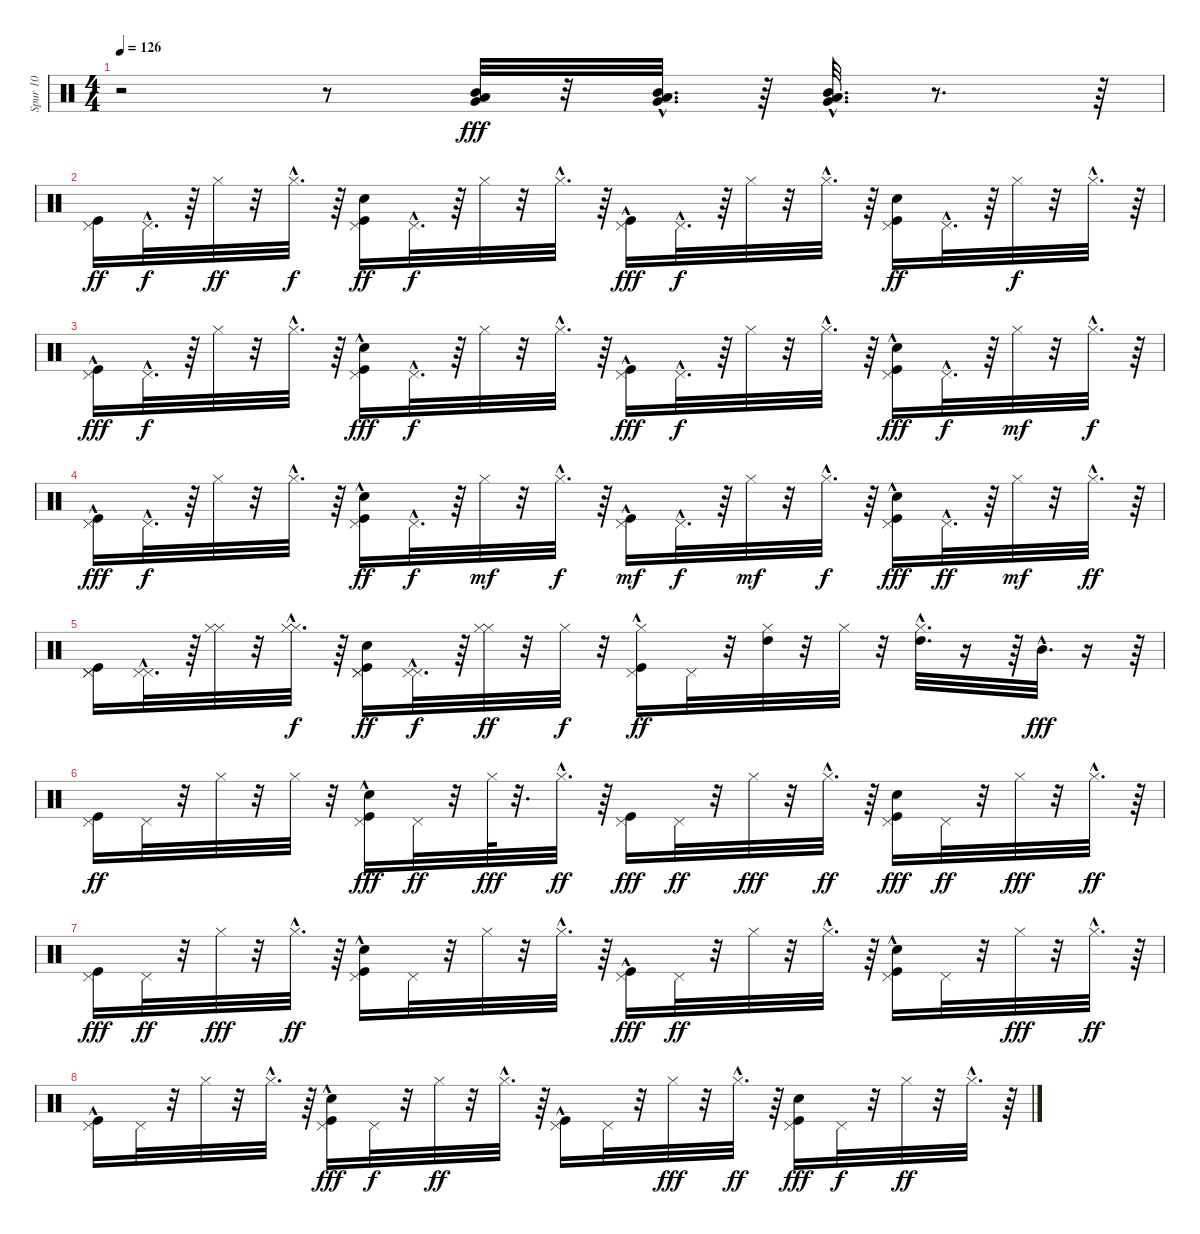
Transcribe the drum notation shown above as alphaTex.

\track ("Spur 10" "Spur 10") {instrument percussion}
\staff {score}
\articulation defaults
\ts (4 4)
\tempo 126
\clef neutral
\ks c
r.2{dy fff} r.8 ("Very Low Tom (hit)" "Low Tom (hit)" "Mid Tom (hit)").32 r.32 ("Low Tom (hit)"{hac} "Very Low Tom (hit)"{hac} "Mid Tom (hit)"{hac}).32{d} r.64 ("Very Low Tom (hit)" "Low Tom (hit)"{hac} "Mid Tom (hit)").32{d} r.8{d} r.64 |
("Kick (hit)" "Pedal Hi-Hat (hit)").16{dy ff} "Pedal Hi-Hat (hit)"{hac}.32{d dy f} r.64 "Hi-Hat (closed)".32{dy ff} r.32 "Hi-Hat (closed)"{hac}.32{d dy f} r.64 ("Kick (hit)" "Snare (hit) 2" "Pedal Hi-Hat (hit)").16{dy ff} "Pedal Hi-Hat (hit)"{hac}.32{d dy f} r.64 "Hi-Hat (closed)".32 r.32 "Hi-Hat (closed)"{hac}.32{d} r.64 ("Kick (hit)"{hac} "Pedal Hi-Hat (hit)").16{dy fff} "Pedal Hi-Hat (hit)"{hac}.32{d dy f} r.64 "Hi-Hat (closed)".32 r.32 "Hi-Hat (closed)"{hac}.32{d} r.64 ("Kick (hit)" "Snare (hit) 2" "Pedal Hi-Hat (hit)").16{dy ff} "Pedal Hi-Hat (hit)"{hac}.32{d} r.64 "Hi-Hat (closed)".32{dy f} r.32 "Hi-Hat (closed)"{hac}.32{d} r.64 |
("Kick (hit)"{hac} "Pedal Hi-Hat (hit)").16{dy fff} "Pedal Hi-Hat (hit)"{hac}.32{d dy f} r.64 "Hi-Hat (closed)".32 r.32 "Hi-Hat (closed)"{hac}.32{d} r.64 ("Snare (hit) 2"{hac} "Kick (hit)"{hac} "Pedal Hi-Hat (hit)").16{dy fff} "Pedal Hi-Hat (hit)"{hac}.32{d dy f} r.64 "Hi-Hat (closed)".32 r.32 "Hi-Hat (closed)"{hac}.32{d} r.64 ("Kick (hit)"{hac} "Pedal Hi-Hat (hit)").16{dy fff} "Pedal Hi-Hat (hit)"{hac}.32{d dy f} r.64 "Hi-Hat (closed)".32 r.32 "Hi-Hat (closed)"{hac}.32{d} r.64 ("Snare (hit) 2"{hac} "Kick (hit)"{hac} "Pedal Hi-Hat (hit)").16{dy fff} "Pedal Hi-Hat (hit)"{hac}.32{d dy f} r.64 "Hi-Hat (closed)".32{dy mf} r.32 "Hi-Hat (closed)"{hac}.32{d dy f} r.64 |
("Kick (hit)"{hac} "Pedal Hi-Hat (hit)").16{dy fff} "Pedal Hi-Hat (hit)"{hac}.32{d dy f} r.64 "Hi-Hat (closed)".32 r.32 "Hi-Hat (closed)"{hac}.32{d} r.64 ("Kick (hit)"{hac} "Snare (hit) 2"{hac} "Pedal Hi-Hat (hit)").16{dy ff} "Pedal Hi-Hat (hit)"{hac}.32{d dy f} r.64 "Hi-Hat (closed)".32{dy mf} r.32 "Hi-Hat (closed)"{hac}.32{d dy f} r.64 ("Kick (hit)"{hac} "Pedal Hi-Hat (hit)").16{dy mf} "Pedal Hi-Hat (hit)"{hac}.32{d dy f} r.64 "Hi-Hat (closed)".32{dy mf} r.32 "Hi-Hat (closed)"{hac}.32{d dy f} r.64 ("Snare (hit) 2"{hac} "Kick (hit)"{hac} "Pedal Hi-Hat (hit)").16{dy fff} "Pedal Hi-Hat (hit)"{hac}.32{d dy ff} r.64 "Hi-Hat (closed)".32{dy mf} r.32 "Hi-Hat (closed)"{hac}.32{d dy ff} r.64 |
("Kick (hit)" "Pedal Hi-Hat (hit)" "Pedal Hi-Hat (hit)").16 ("Pedal Hi-Hat (hit)"{hac} "Pedal Hi-Hat (hit)"{hac}).32{d} r.64 ("Hi-Hat (closed)" "Hi-Hat (closed)").32 r.32 ("Hi-Hat (closed)"{hac} "Hi-Hat (closed)"{hac}).32{d dy f} r.64 ("Snare (hit) 2" "Kick (hit)" "Pedal Hi-Hat (hit)" "Pedal Hi-Hat (hit)").16{dy ff} ("Pedal Hi-Hat (hit)"{hac} "Pedal Hi-Hat (hit)"{hac}).32{d dy f} r.64 ("Hi-Hat (closed)" "Hi-Hat (closed)").32{dy ff} r.32 "Hi-Hat (closed)".32{dy f} r.32 ("Kick (hit)"{hac} "Hi-Hat (closed)"{hac} "Pedal Hi-Hat (hit)").16{dy ff} "Pedal Hi-Hat (hit)".32 r.32 ("High Tom (hit)" "Hi-Hat (closed)").32 r.32 "Hi-Hat (closed)".32 r.32 ("High Tom (hit)"{hac} "Hi-Hat (closed)").32{d} r.16 r.64 "Mid Tom (hit)"{hac}.32{d dy fff} r.16 r.64 |
("Kick (hit)" "Pedal Hi-Hat (hit)").16{dy ff} "Pedal Hi-Hat (hit)".32 r.32 "Hi-Hat (closed)".32 r.32 "Hi-Hat (closed)".32 r.32 ("Kick (hit)" "Snare (hit) 2"{hac} "Pedal Hi-Hat (hit)").16{dy fff} "Pedal Hi-Hat (hit)".32{dy ff} r.32 "Hi-Hat (closed)".64{dy fff} r.32{d} "Hi-Hat (closed)"{hac}.32{d dy ff} r.64 ("Kick (hit)" "Pedal Hi-Hat (hit)").16{dy fff} "Pedal Hi-Hat (hit)".32{dy ff} r.32 "Hi-Hat (closed)".32{dy fff} r.32 "Hi-Hat (closed)"{hac}.32{d dy ff} r.64 ("Kick (hit)" "Snare (hit) 2" "Pedal Hi-Hat (hit)").16{dy fff} "Pedal Hi-Hat (hit)".32{dy ff} r.32 "Hi-Hat (closed)".32{dy fff} r.32 "Hi-Hat (closed)"{hac}.32{d dy ff} r.64 |
("Kick (hit)" "Pedal Hi-Hat (hit)").16{dy fff} "Pedal Hi-Hat (hit)".32{dy ff} r.32 "Hi-Hat (closed)".32{dy fff} r.32 "Hi-Hat (closed)"{hac}.32{d dy ff} r.64 ("Kick (hit)"{hac} "Snare (hit) 2"{hac} "Pedal Hi-Hat (hit)").16 "Pedal Hi-Hat (hit)".32 r.32 "Hi-Hat (closed)".32 r.32 "Hi-Hat (closed)"{hac}.32{d} r.64 ("Kick (hit)"{hac} "Pedal Hi-Hat (hit)").16{dy fff} "Pedal Hi-Hat (hit)".32{dy ff} r.32 "Hi-Hat (closed)".32 r.32 "Hi-Hat (closed)"{hac}.32{d} r.64 ("Kick (hit)"{hac} "Snare (hit) 2"{hac} "Pedal Hi-Hat (hit)").16 "Pedal Hi-Hat (hit)".32 r.32 "Hi-Hat (closed)".32{dy fff} r.32 "Hi-Hat (closed)"{hac}.32{d dy ff} r.64 |
("Kick (hit)"{hac} "Pedal Hi-Hat (hit)").16 "Pedal Hi-Hat (hit)".32 r.32 "Hi-Hat (closed)".32 r.32 "Hi-Hat (closed)"{hac}.32{d} r.64 ("Kick (hit)"{hac} "Snare (hit) 2"{hac} "Pedal Hi-Hat (hit)").16{dy fff} "Pedal Hi-Hat (hit)".32{dy f} r.32 "Hi-Hat (closed)".32{dy ff} r.32 "Hi-Hat (closed)"{hac}.32{d} r.64 ("Kick (hit)"{hac} "Pedal Hi-Hat (hit)").16 "Pedal Hi-Hat (hit)".32 r.32 "Hi-Hat (closed)".32{dy fff} r.32 "Hi-Hat (closed)"{hac}.32{d dy ff} r.64 ("Snare (hit) 2" "Kick (hit)" "Pedal Hi-Hat (hit)").16{dy fff} "Pedal Hi-Hat (hit)".32{dy f} r.32 "Hi-Hat (closed)".32{dy ff} r.32 "Hi-Hat (closed)"{hac}.32{d} r.64
